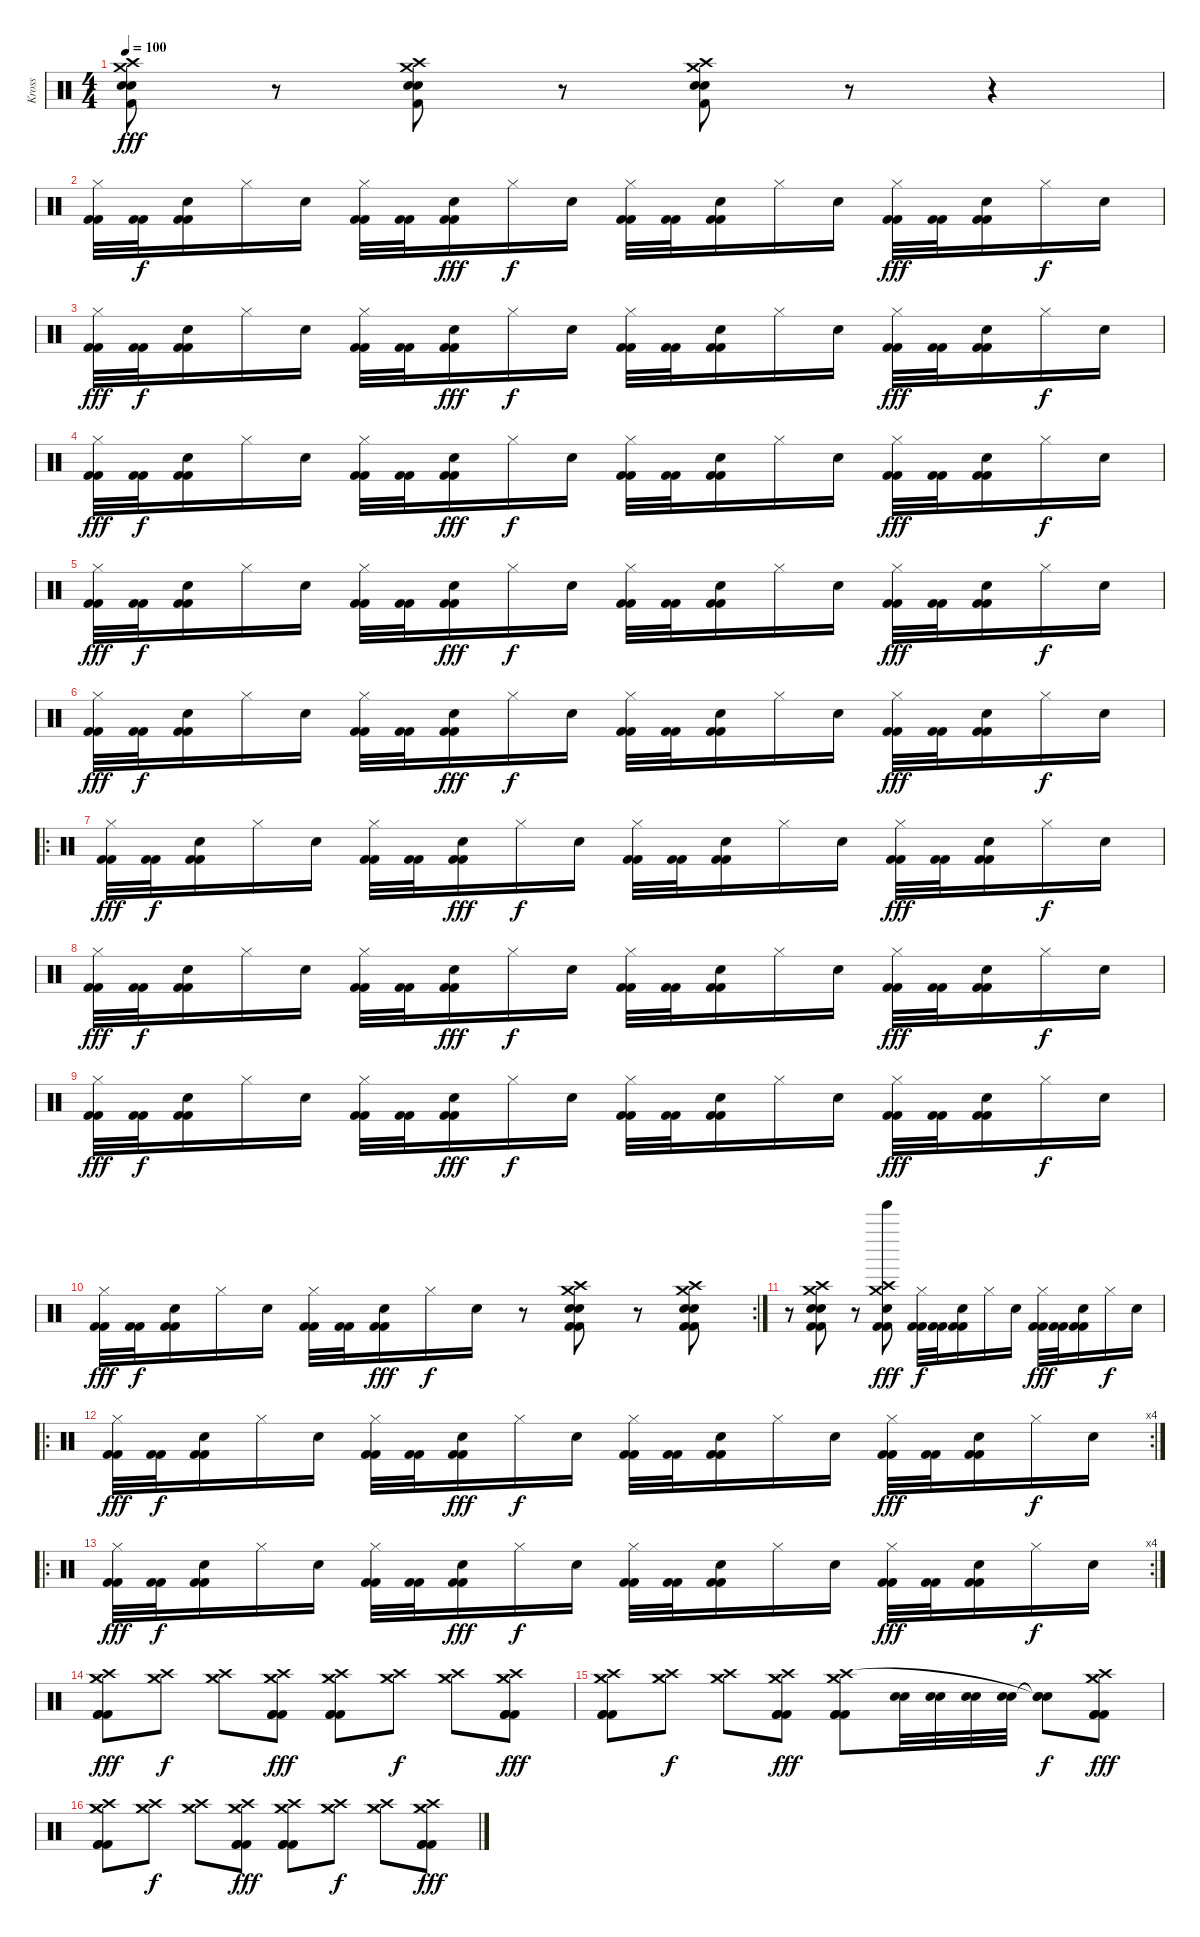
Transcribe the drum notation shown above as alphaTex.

\track ("Kross" "Kross") {instrument percussion}
\staff {score}
\articulation defaults
\ts (4 4)
\tempo 100
\clef neutral
\ks c
("Crash medium (hit)" "Crash high (hit)" "Snare (hit) 2" "Snare (hit) 2" "Kick (hit) 2").8{dy fff} r.8 ("Crash medium (hit)" "Crash high (hit)" "Snare (hit) 2" "Snare (hit) 2" "Kick (hit) 2").8 r.8 ("Crash medium (hit)" "Crash high (hit)" "Snare (hit) 2" "Snare (hit) 2" "Kick (hit) 2").8 r.8 r.4 |
("Kick (hit) 2" "Kick (hit) 2" "Hi-Hat (closed)").32 ("Kick (hit) 2" "Kick (hit) 2").32{dy f} ("Kick (hit) 2" "Kick (hit) 2" "Snare (hit) 2").16 "Hi-Hat (closed)".16 "Snare (hit) 2".16 ("Kick (hit) 2" "Kick (hit) 2" "Hi-Hat (closed)").32 ("Kick (hit) 2" "Kick (hit) 2").32 ("Kick (hit) 2" "Kick (hit) 2" "Snare (hit) 2").16{dy fff} "Hi-Hat (closed)".16{dy f} "Snare (hit) 2".16 ("Kick (hit) 2" "Kick (hit) 2" "Hi-Hat (closed)").32 ("Kick (hit) 2" "Kick (hit) 2").32 ("Kick (hit) 2" "Kick (hit) 2" "Snare (hit) 2").16 "Hi-Hat (closed)".16 "Snare (hit) 2".16 ("Kick (hit) 2" "Kick (hit) 2" "Hi-Hat (closed)").32{dy fff} ("Kick (hit) 2" "Kick (hit) 2").32 ("Kick (hit) 2" "Kick (hit) 2" "Snare (hit) 2").16 "Hi-Hat (closed)".16{dy f} "Snare (hit) 2".16 |
("Kick (hit) 2" "Kick (hit) 2" "Hi-Hat (closed)").32{dy fff} ("Kick (hit) 2" "Kick (hit) 2").32{dy f} ("Kick (hit) 2" "Kick (hit) 2" "Snare (hit) 2").16 "Hi-Hat (closed)".16 "Snare (hit) 2".16 ("Kick (hit) 2" "Kick (hit) 2" "Hi-Hat (closed)").32 ("Kick (hit) 2" "Kick (hit) 2").32 ("Kick (hit) 2" "Kick (hit) 2" "Snare (hit) 2").16{dy fff} "Hi-Hat (closed)".16{dy f} "Snare (hit) 2".16 ("Kick (hit) 2" "Kick (hit) 2" "Hi-Hat (closed)").32 ("Kick (hit) 2" "Kick (hit) 2").32 ("Kick (hit) 2" "Kick (hit) 2" "Snare (hit) 2").16 "Hi-Hat (closed)".16 "Snare (hit) 2".16 ("Kick (hit) 2" "Kick (hit) 2" "Hi-Hat (closed)").32{dy fff} ("Kick (hit) 2" "Kick (hit) 2").32 ("Kick (hit) 2" "Kick (hit) 2" "Snare (hit) 2").16 "Hi-Hat (closed)".16{dy f} "Snare (hit) 2".16 |
("Kick (hit) 2" "Kick (hit) 2" "Hi-Hat (closed)").32{dy fff} ("Kick (hit) 2" "Kick (hit) 2").32{dy f} ("Kick (hit) 2" "Kick (hit) 2" "Snare (hit) 2").16 "Hi-Hat (closed)".16 "Snare (hit) 2".16 ("Kick (hit) 2" "Kick (hit) 2" "Hi-Hat (closed)").32 ("Kick (hit) 2" "Kick (hit) 2").32 ("Kick (hit) 2" "Kick (hit) 2" "Snare (hit) 2").16{dy fff} "Hi-Hat (closed)".16{dy f} "Snare (hit) 2".16 ("Kick (hit) 2" "Kick (hit) 2" "Hi-Hat (closed)").32 ("Kick (hit) 2" "Kick (hit) 2").32 ("Kick (hit) 2" "Kick (hit) 2" "Snare (hit) 2").16 "Hi-Hat (closed)".16 "Snare (hit) 2".16 ("Kick (hit) 2" "Kick (hit) 2" "Hi-Hat (closed)").32{dy fff} ("Kick (hit) 2" "Kick (hit) 2").32 ("Kick (hit) 2" "Kick (hit) 2" "Snare (hit) 2").16 "Hi-Hat (closed)".16{dy f} "Snare (hit) 2".16 |
("Kick (hit) 2" "Kick (hit) 2" "Hi-Hat (closed)").32{dy fff} ("Kick (hit) 2" "Kick (hit) 2").32{dy f} ("Kick (hit) 2" "Kick (hit) 2" "Snare (hit) 2").16 "Hi-Hat (closed)".16 "Snare (hit) 2".16 ("Kick (hit) 2" "Kick (hit) 2" "Hi-Hat (closed)").32 ("Kick (hit) 2" "Kick (hit) 2").32 ("Kick (hit) 2" "Kick (hit) 2" "Snare (hit) 2").16{dy fff} "Hi-Hat (closed)".16{dy f} "Snare (hit) 2".16 ("Kick (hit) 2" "Kick (hit) 2" "Hi-Hat (closed)").32 ("Kick (hit) 2" "Kick (hit) 2").32 ("Kick (hit) 2" "Kick (hit) 2" "Snare (hit) 2").16 "Hi-Hat (closed)".16 "Snare (hit) 2".16 ("Kick (hit) 2" "Kick (hit) 2" "Hi-Hat (closed)").32{dy fff} ("Kick (hit) 2" "Kick (hit) 2").32 ("Kick (hit) 2" "Kick (hit) 2" "Snare (hit) 2").16 "Hi-Hat (closed)".16{dy f} "Snare (hit) 2".16 |
("Kick (hit) 2" "Kick (hit) 2" "Hi-Hat (closed)").32{dy fff} ("Kick (hit) 2" "Kick (hit) 2").32{dy f} ("Kick (hit) 2" "Kick (hit) 2" "Snare (hit) 2").16 "Hi-Hat (closed)".16 "Snare (hit) 2".16 ("Kick (hit) 2" "Kick (hit) 2" "Hi-Hat (closed)").32 ("Kick (hit) 2" "Kick (hit) 2").32 ("Kick (hit) 2" "Kick (hit) 2" "Snare (hit) 2").16{dy fff} "Hi-Hat (closed)".16{dy f} "Snare (hit) 2".16 ("Kick (hit) 2" "Kick (hit) 2" "Hi-Hat (closed)").32 ("Kick (hit) 2" "Kick (hit) 2").32 ("Kick (hit) 2" "Kick (hit) 2" "Snare (hit) 2").16 "Hi-Hat (closed)".16 "Snare (hit) 2".16 ("Kick (hit) 2" "Kick (hit) 2" "Hi-Hat (closed)").32{dy fff} ("Kick (hit) 2" "Kick (hit) 2").32 ("Kick (hit) 2" "Kick (hit) 2" "Snare (hit) 2").16 "Hi-Hat (closed)".16{dy f} "Snare (hit) 2".16 |
\ro
("Kick (hit) 2" "Kick (hit) 2" "Hi-Hat (closed)").32{dy fff} ("Kick (hit) 2" "Kick (hit) 2").32{dy f} ("Kick (hit) 2" "Kick (hit) 2" "Snare (hit) 2").16 "Hi-Hat (closed)".16 "Snare (hit) 2".16 ("Kick (hit) 2" "Kick (hit) 2" "Hi-Hat (closed)").32 ("Kick (hit) 2" "Kick (hit) 2").32 ("Kick (hit) 2" "Kick (hit) 2" "Snare (hit) 2").16{dy fff} "Hi-Hat (closed)".16{dy f} "Snare (hit) 2".16 ("Kick (hit) 2" "Kick (hit) 2" "Hi-Hat (closed)").32 ("Kick (hit) 2" "Kick (hit) 2").32 ("Kick (hit) 2" "Kick (hit) 2" "Snare (hit) 2").16 "Hi-Hat (closed)".16 "Snare (hit) 2".16 ("Kick (hit) 2" "Kick (hit) 2" "Hi-Hat (closed)").32{dy fff} ("Kick (hit) 2" "Kick (hit) 2").32 ("Kick (hit) 2" "Kick (hit) 2" "Snare (hit) 2").16 "Hi-Hat (closed)".16{dy f} "Snare (hit) 2".16 |
("Kick (hit) 2" "Kick (hit) 2" "Hi-Hat (closed)").32{dy fff} ("Kick (hit) 2" "Kick (hit) 2").32{dy f} ("Kick (hit) 2" "Kick (hit) 2" "Snare (hit) 2").16 "Hi-Hat (closed)".16 "Snare (hit) 2".16 ("Kick (hit) 2" "Kick (hit) 2" "Hi-Hat (closed)").32 ("Kick (hit) 2" "Kick (hit) 2").32 ("Kick (hit) 2" "Kick (hit) 2" "Snare (hit) 2").16{dy fff} "Hi-Hat (closed)".16{dy f} "Snare (hit) 2".16 ("Kick (hit) 2" "Kick (hit) 2" "Hi-Hat (closed)").32 ("Kick (hit) 2" "Kick (hit) 2").32 ("Kick (hit) 2" "Kick (hit) 2" "Snare (hit) 2").16 "Hi-Hat (closed)".16 "Snare (hit) 2".16 ("Kick (hit) 2" "Kick (hit) 2" "Hi-Hat (closed)").32{dy fff} ("Kick (hit) 2" "Kick (hit) 2").32 ("Kick (hit) 2" "Kick (hit) 2" "Snare (hit) 2").16 "Hi-Hat (closed)".16{dy f} "Snare (hit) 2".16 |
("Kick (hit) 2" "Kick (hit) 2" "Hi-Hat (closed)").32{dy fff} ("Kick (hit) 2" "Kick (hit) 2").32{dy f} ("Kick (hit) 2" "Kick (hit) 2" "Snare (hit) 2").16 "Hi-Hat (closed)".16 "Snare (hit) 2".16 ("Kick (hit) 2" "Kick (hit) 2" "Hi-Hat (closed)").32 ("Kick (hit) 2" "Kick (hit) 2").32 ("Kick (hit) 2" "Kick (hit) 2" "Snare (hit) 2").16{dy fff} "Hi-Hat (closed)".16{dy f} "Snare (hit) 2".16 ("Kick (hit) 2" "Kick (hit) 2" "Hi-Hat (closed)").32 ("Kick (hit) 2" "Kick (hit) 2").32 ("Kick (hit) 2" "Kick (hit) 2" "Snare (hit) 2").16 "Hi-Hat (closed)".16 "Snare (hit) 2".16 ("Kick (hit) 2" "Kick (hit) 2" "Hi-Hat (closed)").32{dy fff} ("Kick (hit) 2" "Kick (hit) 2").32 ("Kick (hit) 2" "Kick (hit) 2" "Snare (hit) 2").16 "Hi-Hat (closed)".16{dy f} "Snare (hit) 2".16 |
\rc 2
("Kick (hit) 2" "Kick (hit) 2" "Hi-Hat (closed)").32{dy fff} ("Kick (hit) 2" "Kick (hit) 2").32{dy f} ("Kick (hit) 2" "Kick (hit) 2" "Snare (hit) 2").16 "Hi-Hat (closed)".16 "Snare (hit) 2".16 ("Kick (hit) 2" "Kick (hit) 2" "Hi-Hat (closed)").32 ("Kick (hit) 2" "Kick (hit) 2").32 ("Kick (hit) 2" "Kick (hit) 2" "Snare (hit) 2").16{dy fff} "Hi-Hat (closed)".16{dy f} "Snare (hit) 2".16 r.8 ("Crash high (hit)" "Crash medium (hit)" "Snare (hit) 2" "Snare (hit) 2" "Kick (hit) 2" "Kick (hit) 2").8 r.8 ("Crash medium (hit)" "Crash high (hit)" "Snare (hit) 2" "Snare (hit) 2" "Kick (hit) 2" "Kick (hit) 2").8 |
r.8 ("Crash medium (hit)" "Crash high (hit)" "Kick (hit) 2" "Kick (hit) 2" "Snare (hit) 2" "Snare (hit) 2").8 r.8 ("Crash high (hit)" "Crash medium (hit)" "Tinkle Bell (hit)" "Snare (hit) 2" "Kick (hit) 2" "Kick (hit) 2").8{dy fff} ("Kick (hit) 2" "Kick (hit) 2" "Hi-Hat (closed)").32{dy f} ("Kick (hit) 2" "Kick (hit) 2").32 ("Kick (hit) 2" "Kick (hit) 2" "Snare (hit) 2").16 "Hi-Hat (closed)".16 "Snare (hit) 2".16 ("Kick (hit) 2" "Kick (hit) 2" "Hi-Hat (closed)").32{dy fff} ("Kick (hit) 2" "Kick (hit) 2").32 ("Kick (hit) 2" "Kick (hit) 2" "Snare (hit) 2").16 "Hi-Hat (closed)".16{dy f} "Snare (hit) 2".16 |
\ro
\rc 4
("Kick (hit) 2" "Kick (hit) 2" "Hi-Hat (closed)").32{dy fff} ("Kick (hit) 2" "Kick (hit) 2").32{dy f} ("Kick (hit) 2" "Kick (hit) 2" "Snare (hit) 2").16 "Hi-Hat (closed)".16 "Snare (hit) 2".16 ("Kick (hit) 2" "Kick (hit) 2" "Hi-Hat (closed)").32 ("Kick (hit) 2" "Kick (hit) 2").32 ("Kick (hit) 2" "Kick (hit) 2" "Snare (hit) 2").16{dy fff} "Hi-Hat (closed)".16{dy f} "Snare (hit) 2".16 ("Kick (hit) 2" "Kick (hit) 2" "Hi-Hat (closed)").32 ("Kick (hit) 2" "Kick (hit) 2").32 ("Kick (hit) 2" "Kick (hit) 2" "Snare (hit) 2").16 "Hi-Hat (closed)".16 "Snare (hit) 2".16 ("Kick (hit) 2" "Kick (hit) 2" "Hi-Hat (closed)").32{dy fff} ("Kick (hit) 2" "Kick (hit) 2").32 ("Kick (hit) 2" "Kick (hit) 2" "Snare (hit) 2").16 "Hi-Hat (closed)".16{dy f} "Snare (hit) 2".16 |
\ro
\rc 4
("Kick (hit) 2" "Kick (hit) 2" "Hi-Hat (closed)").32{dy fff} ("Kick (hit) 2" "Kick (hit) 2").32{dy f} ("Kick (hit) 2" "Kick (hit) 2" "Snare (hit) 2").16 "Hi-Hat (closed)".16 "Snare (hit) 2".16 ("Kick (hit) 2" "Kick (hit) 2" "Hi-Hat (closed)").32 ("Kick (hit) 2" "Kick (hit) 2").32 ("Kick (hit) 2" "Kick (hit) 2" "Snare (hit) 2").16{dy fff} "Hi-Hat (closed)".16{dy f} "Snare (hit) 2".16 ("Kick (hit) 2" "Kick (hit) 2" "Hi-Hat (closed)").32 ("Kick (hit) 2" "Kick (hit) 2").32 ("Kick (hit) 2" "Kick (hit) 2" "Snare (hit) 2").16 "Hi-Hat (closed)".16 "Snare (hit) 2".16 ("Kick (hit) 2" "Kick (hit) 2" "Hi-Hat (closed)").32{dy fff} ("Kick (hit) 2" "Kick (hit) 2").32 ("Kick (hit) 2" "Kick (hit) 2" "Snare (hit) 2").16 "Hi-Hat (closed)".16{dy f} "Snare (hit) 2".16 |
("Crash medium (hit)" "Crash medium (hit)" "Crash high (hit)" "Kick (hit) 2" "Kick (hit) 2" "Kick (hit) 2").8{dy fff} ("Crash medium (hit)" "Crash medium (hit)" "Crash high (hit)").8{dy f} ("Crash medium (hit)" "Crash medium (hit)" "Crash high (hit)").8 ("Crash medium (hit)" "Crash medium (hit)" "Crash high (hit)" "Kick (hit) 2" "Kick (hit) 2" "Kick (hit) 2").8{dy fff} ("Crash medium (hit)" "Crash medium (hit)" "Crash high (hit)" "Kick (hit) 2" "Kick (hit) 2" "Kick (hit) 2").8 ("Crash medium (hit)" "Crash medium (hit)" "Crash high (hit)").8{dy f} ("Crash medium (hit)" "Crash medium (hit)" "Crash high (hit)").8 ("Crash medium (hit)" "Crash medium (hit)" "Crash high (hit)" "Kick (hit) 2" "Kick (hit) 2" "Kick (hit) 2").8{dy fff} |
("Crash medium (hit)" "Crash medium (hit)" "Crash high (hit)" "Kick (hit) 2" "Kick (hit) 2" "Kick (hit) 2").8 ("Crash medium (hit)" "Crash medium (hit)" "Crash high (hit)").8{dy f} ("Crash medium (hit)" "Crash medium (hit)" "Crash high (hit)").8 ("Crash medium (hit)" "Crash medium (hit)" "Crash high (hit)" "Kick (hit) 2" "Kick (hit) 2" "Kick (hit) 2").8{dy fff} ("Crash medium (hit)" "Crash medium (hit)" "Crash high (hit)" "Kick (hit) 2" "Kick (hit) 2" "Kick (hit) 2").8 ("Snare (hit) 2" "Snare (hit) 2").32 ("Snare (hit) 2" "Snare (hit) 2").32 ("Snare (hit) 2" "Snare (hit) 2").32 ("Snare (hit) 2" "Snare (hit) 2").32 ("Snare (hit)"{t} "Snare (hit)"{t} "Snare (hit)"{t}).8{dy f} ("Crash medium (hit)" "Crash medium (hit)" "Crash high (hit)" "Kick (hit) 2" "Kick (hit) 2" "Kick (hit) 2").8{dy fff} |
("Crash medium (hit)" "Crash medium (hit)" "Crash high (hit)" "Kick (hit) 2" "Kick (hit) 2" "Kick (hit) 2").8 ("Crash medium (hit)" "Crash medium (hit)" "Crash high (hit)").8{dy f} ("Crash medium (hit)" "Crash medium (hit)" "Crash high (hit)").8 ("Crash medium (hit)" "Crash medium (hit)" "Crash high (hit)" "Kick (hit) 2" "Kick (hit) 2" "Kick (hit) 2").8{dy fff} ("Crash medium (hit)" "Crash medium (hit)" "Crash high (hit)" "Kick (hit) 2" "Kick (hit) 2" "Kick (hit) 2").8 ("Crash medium (hit)" "Crash medium (hit)" "Crash high (hit)").8{dy f} ("Crash medium (hit)" "Crash medium (hit)" "Crash high (hit)").8 ("Crash medium (hit)" "Crash medium (hit)" "Crash high (hit)" "Kick (hit) 2" "Kick (hit) 2" "Kick (hit) 2").8{dy fff}
